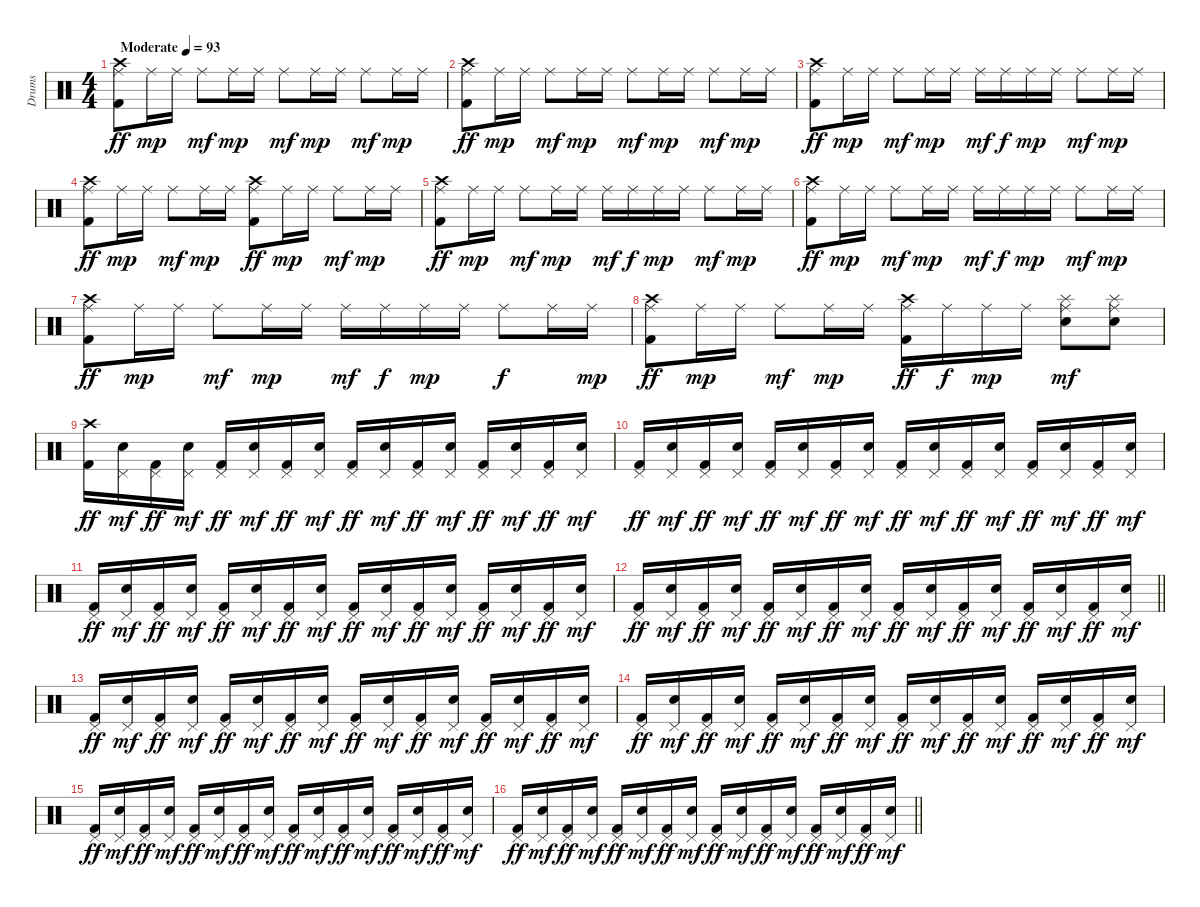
\track ("Drums" "Drums") {instrument percussion}
\staff {score}
\articulation defaults
\ts (4 4)
\tempo (93 "Moderate")
\clef neutral
\ks c
("Crash high (hit)" "Ride (middle)" "Kick (hit) 2").8{dy ff} "Ride (middle)".16{dy mp} "Ride (middle)".16 "Ride (middle)".8{dy mf} "Ride (middle)".16{dy mp} "Ride (middle)".16 "Ride (middle)".8{dy mf} "Ride (middle)".16{dy mp} "Ride (middle)".16 "Ride (middle)".8{dy mf} "Ride (middle)".16{dy mp} "Ride (middle)".16 |
("Crash high (hit)" "Ride (middle)" "Kick (hit) 2").8{dy ff} "Ride (middle)".16{dy mp} "Ride (middle)".16 "Ride (middle)".8{dy mf} "Ride (middle)".16{dy mp} "Ride (middle)".16 "Ride (middle)".8{dy mf} "Ride (middle)".16{dy mp} "Ride (middle)".16 "Ride (middle)".8{dy mf} "Ride (middle)".16{dy mp} "Ride (middle)".16 |
("Crash high (hit)" "Ride (middle)" "Kick (hit) 2").8{dy ff} "Ride (middle)".16{dy mp} "Ride (middle)".16 "Ride (middle)".8{dy mf} "Ride (middle)".16{dy mp} "Ride (middle)".16 "Ride (middle)".16{dy mf} "Ride (middle)".16{dy f} "Ride (middle)".16{dy mp} "Ride (middle)".16 "Ride (middle)".8{dy mf} "Ride (middle)".16{dy mp} "Ride (middle)".16 |
("Crash high (hit)" "Ride (middle)" "Kick (hit) 2").8{dy ff} "Ride (middle)".16{dy mp} "Ride (middle)".16 "Ride (middle)".8{dy mf} "Ride (middle)".16{dy mp} "Ride (middle)".16 ("Crash high (hit)" "Ride (middle)" "Kick (hit) 2").8{dy ff} "Ride (middle)".16{dy mp} "Ride (middle)".16 "Ride (middle)".8{dy mf} "Ride (middle)".16{dy mp} "Ride (middle)".16 |
("Crash high (hit)" "Ride (middle)" "Kick (hit) 2").8{dy ff} "Ride (middle)".16{dy mp} "Ride (middle)".16 "Ride (middle)".8{dy mf} "Ride (middle)".16{dy mp} "Ride (middle)".16 "Ride (middle)".16{dy mf} "Ride (middle)".16{dy f} "Ride (middle)".16{dy mp} "Ride (middle)".16 "Ride (middle)".8{dy mf} "Ride (middle)".16{dy mp} "Ride (middle)".16 |
("Crash high (hit)" "Ride (middle)" "Kick (hit) 2").8{dy ff} "Ride (middle)".16{dy mp} "Ride (middle)".16 "Ride (middle)".8{dy mf} "Ride (middle)".16{dy mp} "Ride (middle)".16 "Ride (middle)".16{dy mf} "Ride (middle)".16{dy f} "Ride (middle)".16{dy mp} "Ride (middle)".16 "Ride (middle)".8{dy mf} "Ride (middle)".16{dy mp} "Ride (middle)".16 |
("Crash high (hit)" "Ride (middle)" "Kick (hit) 2").8{dy ff} "Ride (middle)".16{dy mp} "Ride (middle)".16 "Ride (middle)".8{dy mf} "Ride (middle)".16{dy mp} "Ride (middle)".16 "Ride (middle)".16{dy mf} "Ride (middle)".16{dy f} "Ride (middle)".16{dy mp} "Ride (middle)".16 "Ride (middle)".8{dy f} "Ride (middle)".16 "Ride (middle)".16{dy mp} |
("Crash high (hit)" "Ride (middle)" "Kick (hit) 2").8{dy ff} "Ride (middle)".16{dy mp} "Ride (middle)".16 "Ride (middle)".8{dy mf} "Ride (middle)".16{dy mp} "Ride (middle)".16 ("Crash high (hit)" "Ride (middle)" "Kick (hit) 2").16{dy ff} "Ride (middle)".16{dy f} "Ride (middle)".16{dy mp} "Ride (middle)".16 ("Splash (hit)" "Ride (middle)" "Electric Snare (hit)").8{dy mf} ("Splash (hit)" "Ride (middle)" "Electric Snare (hit)").8 |
("Crash high (hit)" "Kick (hit) 2").16{dy ff} ("Pedal Hi-Hat (hit)" "Electric Snare (hit)").16{dy mf} ("Pedal Hi-Hat (hit)" "Kick (hit) 2").16{dy ff} ("Pedal Hi-Hat (hit)" "Electric Snare (hit)").16{dy mf} ("Pedal Hi-Hat (hit)" "Kick (hit) 2").16{dy ff} ("Pedal Hi-Hat (hit)" "Electric Snare (hit)").16{dy mf} ("Pedal Hi-Hat (hit)" "Kick (hit) 2").16{dy ff} ("Pedal Hi-Hat (hit)" "Electric Snare (hit)").16{dy mf} ("Pedal Hi-Hat (hit)" "Kick (hit) 2").16{dy ff} ("Pedal Hi-Hat (hit)" "Electric Snare (hit)").16{dy mf} ("Pedal Hi-Hat (hit)" "Kick (hit) 2").16{dy ff} ("Pedal Hi-Hat (hit)" "Electric Snare (hit)").16{dy mf} ("Pedal Hi-Hat (hit)" "Kick (hit) 2").16{dy ff} ("Pedal Hi-Hat (hit)" "Electric Snare (hit)").16{dy mf} ("Pedal Hi-Hat (hit)" "Kick (hit) 2").16{dy ff} ("Pedal Hi-Hat (hit)" "Electric Snare (hit)").16{dy mf} |
("Pedal Hi-Hat (hit)" "Kick (hit) 2").16{dy ff} ("Pedal Hi-Hat (hit)" "Electric Snare (hit)").16{dy mf} ("Pedal Hi-Hat (hit)" "Kick (hit) 2").16{dy ff} ("Pedal Hi-Hat (hit)" "Electric Snare (hit)").16{dy mf} ("Pedal Hi-Hat (hit)" "Kick (hit) 2").16{dy ff} ("Pedal Hi-Hat (hit)" "Electric Snare (hit)").16{dy mf} ("Pedal Hi-Hat (hit)" "Kick (hit) 2").16{dy ff} ("Pedal Hi-Hat (hit)" "Electric Snare (hit)").16{dy mf} ("Pedal Hi-Hat (hit)" "Kick (hit) 2").16{dy ff} ("Pedal Hi-Hat (hit)" "Electric Snare (hit)").16{dy mf} ("Pedal Hi-Hat (hit)" "Kick (hit) 2").16{dy ff} ("Pedal Hi-Hat (hit)" "Electric Snare (hit)").16{dy mf} ("Pedal Hi-Hat (hit)" "Kick (hit) 2").16{dy ff} ("Pedal Hi-Hat (hit)" "Electric Snare (hit)").16{dy mf} ("Pedal Hi-Hat (hit)" "Kick (hit) 2").16{dy ff} ("Pedal Hi-Hat (hit)" "Electric Snare (hit)").16{dy mf} |
("Pedal Hi-Hat (hit)" "Kick (hit) 2").16{dy ff} ("Pedal Hi-Hat (hit)" "Electric Snare (hit)").16{dy mf} ("Pedal Hi-Hat (hit)" "Kick (hit) 2").16{dy ff} ("Pedal Hi-Hat (hit)" "Electric Snare (hit)").16{dy mf} ("Pedal Hi-Hat (hit)" "Kick (hit) 2").16{dy ff} ("Pedal Hi-Hat (hit)" "Electric Snare (hit)").16{dy mf} ("Pedal Hi-Hat (hit)" "Kick (hit) 2").16{dy ff} ("Pedal Hi-Hat (hit)" "Electric Snare (hit)").16{dy mf} ("Pedal Hi-Hat (hit)" "Kick (hit) 2").16{dy ff} ("Pedal Hi-Hat (hit)" "Electric Snare (hit)").16{dy mf} ("Pedal Hi-Hat (hit)" "Kick (hit) 2").16{dy ff} ("Pedal Hi-Hat (hit)" "Electric Snare (hit)").16{dy mf} ("Pedal Hi-Hat (hit)" "Kick (hit) 2").16{dy ff} ("Pedal Hi-Hat (hit)" "Electric Snare (hit)").16{dy mf} ("Pedal Hi-Hat (hit)" "Kick (hit) 2").16{dy ff} ("Pedal Hi-Hat (hit)" "Electric Snare (hit)").16{dy mf} |
\barLineRight lightlight
("Pedal Hi-Hat (hit)" "Kick (hit) 2").16{dy ff} ("Pedal Hi-Hat (hit)" "Electric Snare (hit)").16{dy mf} ("Pedal Hi-Hat (hit)" "Kick (hit) 2").16{dy ff} ("Pedal Hi-Hat (hit)" "Electric Snare (hit)").16{dy mf} ("Pedal Hi-Hat (hit)" "Kick (hit) 2").16{dy ff} ("Pedal Hi-Hat (hit)" "Electric Snare (hit)").16{dy mf} ("Pedal Hi-Hat (hit)" "Kick (hit) 2").16{dy ff} ("Pedal Hi-Hat (hit)" "Electric Snare (hit)").16{dy mf} ("Pedal Hi-Hat (hit)" "Kick (hit) 2").16{dy ff} ("Pedal Hi-Hat (hit)" "Electric Snare (hit)").16{dy mf} ("Pedal Hi-Hat (hit)" "Kick (hit) 2").16{dy ff} ("Pedal Hi-Hat (hit)" "Electric Snare (hit)").16{dy mf} ("Pedal Hi-Hat (hit)" "Kick (hit) 2").16{dy ff} ("Pedal Hi-Hat (hit)" "Electric Snare (hit)").16{dy mf} ("Pedal Hi-Hat (hit)" "Kick (hit) 2").16{dy ff} ("Pedal Hi-Hat (hit)" "Electric Snare (hit)").16{dy mf} |
("Pedal Hi-Hat (hit)" "Kick (hit) 2").16{dy ff} ("Pedal Hi-Hat (hit)" "Electric Snare (hit)").16{dy mf} ("Pedal Hi-Hat (hit)" "Kick (hit) 2").16{dy ff} ("Pedal Hi-Hat (hit)" "Electric Snare (hit)").16{dy mf} ("Pedal Hi-Hat (hit)" "Kick (hit) 2").16{dy ff} ("Pedal Hi-Hat (hit)" "Electric Snare (hit)").16{dy mf} ("Pedal Hi-Hat (hit)" "Kick (hit) 2").16{dy ff} ("Pedal Hi-Hat (hit)" "Electric Snare (hit)").16{dy mf} ("Pedal Hi-Hat (hit)" "Kick (hit) 2").16{dy ff} ("Pedal Hi-Hat (hit)" "Electric Snare (hit)").16{dy mf} ("Pedal Hi-Hat (hit)" "Kick (hit) 2").16{dy ff} ("Pedal Hi-Hat (hit)" "Electric Snare (hit)").16{dy mf} ("Pedal Hi-Hat (hit)" "Kick (hit) 2").16{dy ff} ("Pedal Hi-Hat (hit)" "Electric Snare (hit)").16{dy mf} ("Pedal Hi-Hat (hit)" "Kick (hit) 2").16{dy ff} ("Pedal Hi-Hat (hit)" "Electric Snare (hit)").16{dy mf} |
("Pedal Hi-Hat (hit)" "Kick (hit) 2").16{dy ff} ("Pedal Hi-Hat (hit)" "Electric Snare (hit)").16{dy mf} ("Pedal Hi-Hat (hit)" "Kick (hit) 2").16{dy ff} ("Pedal Hi-Hat (hit)" "Electric Snare (hit)").16{dy mf} ("Pedal Hi-Hat (hit)" "Kick (hit) 2").16{dy ff} ("Pedal Hi-Hat (hit)" "Electric Snare (hit)").16{dy mf} ("Pedal Hi-Hat (hit)" "Kick (hit) 2").16{dy ff} ("Pedal Hi-Hat (hit)" "Electric Snare (hit)").16{dy mf} ("Pedal Hi-Hat (hit)" "Kick (hit) 2").16{dy ff} ("Pedal Hi-Hat (hit)" "Electric Snare (hit)").16{dy mf} ("Pedal Hi-Hat (hit)" "Kick (hit) 2").16{dy ff} ("Pedal Hi-Hat (hit)" "Electric Snare (hit)").16{dy mf} ("Pedal Hi-Hat (hit)" "Kick (hit) 2").16{dy ff} ("Pedal Hi-Hat (hit)" "Electric Snare (hit)").16{dy mf} ("Pedal Hi-Hat (hit)" "Kick (hit) 2").16{dy ff} ("Pedal Hi-Hat (hit)" "Electric Snare (hit)").16{dy mf} |
("Pedal Hi-Hat (hit)" "Kick (hit) 2").16{dy ff} ("Pedal Hi-Hat (hit)" "Electric Snare (hit)").16{dy mf} ("Pedal Hi-Hat (hit)" "Kick (hit) 2").16{dy ff} ("Pedal Hi-Hat (hit)" "Electric Snare (hit)").16{dy mf} ("Pedal Hi-Hat (hit)" "Kick (hit) 2").16{dy ff} ("Pedal Hi-Hat (hit)" "Electric Snare (hit)").16{dy mf} ("Pedal Hi-Hat (hit)" "Kick (hit) 2").16{dy ff} ("Pedal Hi-Hat (hit)" "Electric Snare (hit)").16{dy mf} ("Pedal Hi-Hat (hit)" "Kick (hit) 2").16{dy ff} ("Pedal Hi-Hat (hit)" "Electric Snare (hit)").16{dy mf} ("Pedal Hi-Hat (hit)" "Kick (hit) 2").16{dy ff} ("Pedal Hi-Hat (hit)" "Electric Snare (hit)").16{dy mf} ("Pedal Hi-Hat (hit)" "Kick (hit) 2").16{dy ff} ("Pedal Hi-Hat (hit)" "Electric Snare (hit)").16{dy mf} ("Pedal Hi-Hat (hit)" "Kick (hit) 2").16{dy ff} ("Pedal Hi-Hat (hit)" "Electric Snare (hit)").16{dy mf} |
\barLineRight lightlight
("Pedal Hi-Hat (hit)" "Kick (hit) 2").16{dy ff} ("Pedal Hi-Hat (hit)" "Electric Snare (hit)").16{dy mf} ("Pedal Hi-Hat (hit)" "Kick (hit) 2").16{dy ff} ("Pedal Hi-Hat (hit)" "Electric Snare (hit)").16{dy mf} ("Pedal Hi-Hat (hit)" "Kick (hit) 2").16{dy ff} ("Pedal Hi-Hat (hit)" "Electric Snare (hit)").16{dy mf} ("Pedal Hi-Hat (hit)" "Kick (hit) 2").16{dy ff} ("Pedal Hi-Hat (hit)" "Electric Snare (hit)").16{dy mf} ("Pedal Hi-Hat (hit)" "Kick (hit) 2").16{dy ff} ("Pedal Hi-Hat (hit)" "Electric Snare (hit)").16{dy mf} ("Pedal Hi-Hat (hit)" "Kick (hit) 2").16{dy ff} ("Pedal Hi-Hat (hit)" "Electric Snare (hit)").16{dy mf} ("Pedal Hi-Hat (hit)" "Kick (hit) 2").16{dy ff} ("Pedal Hi-Hat (hit)" "Electric Snare (hit)").16{dy mf} ("Pedal Hi-Hat (hit)" "Kick (hit) 2").16{dy ff} ("Pedal Hi-Hat (hit)" "Electric Snare (hit)").16{dy mf}
